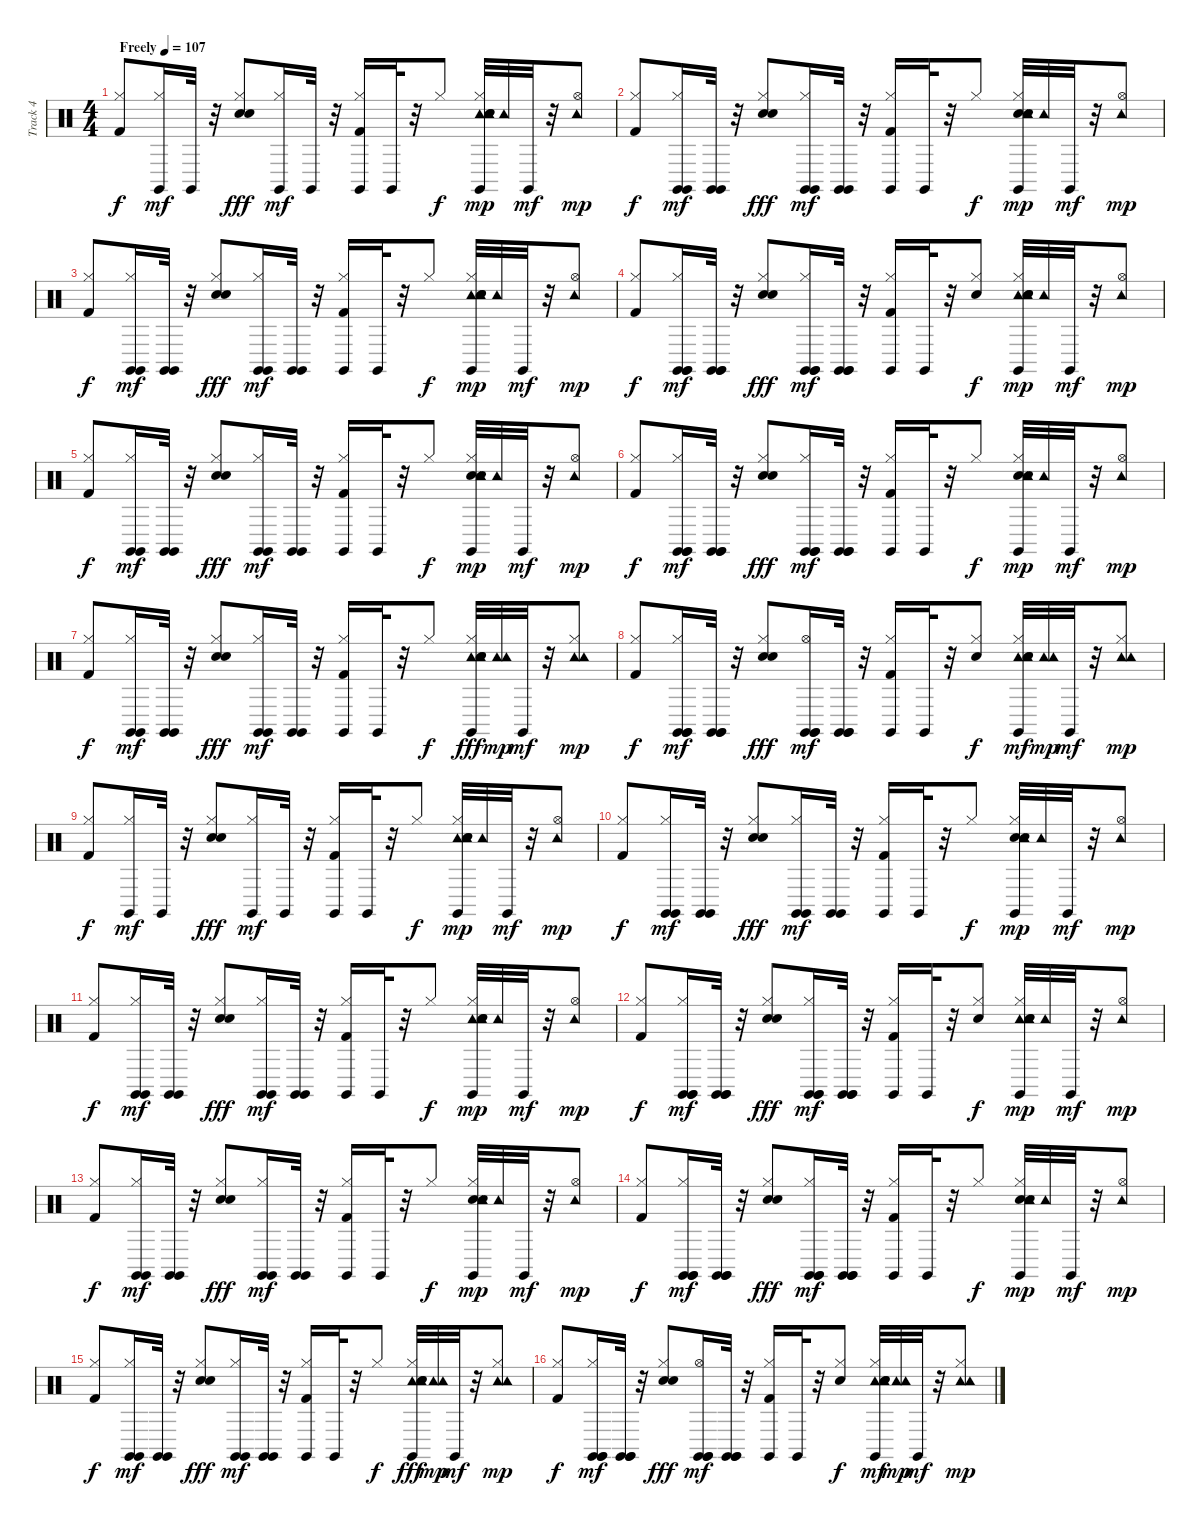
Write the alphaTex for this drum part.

\track ("Track 4" "Track 4") {instrument percussion}
\staff {score}
\articulation defaults
\ts (4 4)
\tempo (107 "Freely")
\clef neutral
\ks c
("Hi-Hat (closed)" "Kick (hit) 2").8{dy f} ("Claves (hit)" "Hi-Hat (closed)").16{dy mf} "Claves (hit)".32 r.32 ("Hand Clap (hit)" "Snare (hit) 2" "Hi-Hat (closed)").8{dy fff} ("Hi-Hat (closed)" "Claves (hit)").16{dy mf} "Claves (hit)".32 r.32 ("Kick (hit) 2" "Claves (hit)" "Hi-Hat (closed)").16 "Claves (hit)".32 r.32 "Hi-Hat (closed)".8{dy f} ("Tambourine (hit)" "Claves (hit)" "Hi-Hat (closed)" "Hand Clap (hit)" "Snare (hit) 2" "Tambourine (hit)").32{dy mp} "Tambourine (hit)".32 "Claves (hit)".32{dy mf} r.32 ("Hi-Hat (open)" "Tambourine (hit)").8{dy mp} |
("Hi-Hat (closed)" "Kick (hit) 2").8{dy f} ("Claves (hit)" "Hi-Hat (closed)" "Claves (hit)").16{dy mf} ("Claves (hit)" "Claves (hit)").32 r.32 ("Hand Clap (hit)" "Hi-Hat (closed)" "Snare (hit) 2").8{dy fff} ("Claves (hit)" "Claves (hit)" "Hi-Hat (closed)").16{dy mf} ("Claves (hit)" "Claves (hit)").32 r.32 ("Hi-Hat (closed)" "Kick (hit) 2" "Claves (hit)").16 "Claves (hit)".32 r.32 "Hi-Hat (closed)".8{dy f} ("Hi-Hat (closed)" "Hand Clap (hit)" "Tambourine (hit)" "Snare (hit) 2" "Claves (hit)" "Tambourine (hit)").32{dy mp} "Tambourine (hit)".32 "Claves (hit)".32{dy mf} r.32 ("Tambourine (hit)" "Hi-Hat (open)").8{dy mp} |
("Kick (hit) 2" "Hi-Hat (closed)").8{dy f} ("Claves (hit)" "Hi-Hat (closed)" "Claves (hit)").16{dy mf} ("Claves (hit)" "Claves (hit)").32 r.32 ("Hand Clap (hit)" "Hi-Hat (closed)" "Snare (hit) 2").8{dy fff} ("Hi-Hat (closed)" "Claves (hit)" "Claves (hit)").16{dy mf} ("Claves (hit)" "Claves (hit)").32 r.32 ("Hi-Hat (closed)" "Kick (hit) 2" "Claves (hit)").16 "Claves (hit)".32 r.32 "Hi-Hat (closed)".8{dy f} ("Tambourine (hit)" "Snare (hit) 2" "Hand Clap (hit)" "Claves (hit)" "Hi-Hat (closed)" "Tambourine (hit)").32{dy mp} "Tambourine (hit)".32 "Claves (hit)".32{dy mf} r.32 ("Tambourine (hit)" "Hi-Hat (open)").8{dy mp} |
("Hi-Hat (closed)" "Kick (hit) 2").8{dy f} ("Claves (hit)" "Claves (hit)" "Hi-Hat (closed)" "Claves (hit)").16{dy mf} ("Claves (hit)" "Claves (hit)" "Claves (hit)").32 r.32 ("Hi-Hat (closed)" "Snare (hit) 2" "Hand Clap (hit)").8{dy fff} ("Claves (hit)" "Hi-Hat (closed)" "Claves (hit)" "Claves (hit)").16{dy mf} ("Claves (hit)" "Claves (hit)" "Claves (hit)").32 r.32 ("Claves (hit)" "Kick (hit) 2" "Hi-Hat (closed)").16 "Claves (hit)".32 r.32 ("Hand Clap (hit)" "Hi-Hat (closed)").8{dy f} ("Tambourine (hit)" "Hi-Hat (closed)" "Claves (hit)" "Hand Clap (hit)" "Snare (hit) 2" "Tambourine (hit)").32{dy mp} "Tambourine (hit)".32 "Claves (hit)".32{dy mf} r.32 ("Hi-Hat (open)" "Tambourine (hit)").8{dy mp} |
("Kick (hit) 2" "Hi-Hat (closed)").8{dy f} ("Claves (hit)" "Claves (hit)" "Hi-Hat (closed)").16{dy mf} ("Claves (hit)" "Claves (hit)").32 r.32 ("Hand Clap (hit)" "Snare (hit) 2" "Hi-Hat (closed)").8{dy fff} ("Claves (hit)" "Hi-Hat (closed)" "Claves (hit)").16{dy mf} ("Claves (hit)" "Claves (hit)").32 r.32 ("Claves (hit)" "Hi-Hat (closed)" "Kick (hit) 2").16 "Claves (hit)".32 r.32 "Hi-Hat (closed)".8{dy f} ("Snare (hit) 2" "Hi-Hat (closed)" "Claves (hit)" "Hand Clap (hit)" "Tambourine (hit)" "Tambourine (hit)").32{dy mp} "Tambourine (hit)".32 "Claves (hit)".32{dy mf} r.32 ("Tambourine (hit)" "Hi-Hat (open)").8{dy mp} |
("Hi-Hat (closed)" "Kick (hit) 2").8{dy f} ("Hi-Hat (closed)" "Claves (hit)" "Claves (hit)" "Claves (hit)").16{dy mf} ("Claves (hit)" "Claves (hit)" "Claves (hit)").32 r.32 ("Snare (hit) 2" "Hand Clap (hit)" "Hi-Hat (closed)").8{dy fff} ("Hi-Hat (closed)" "Claves (hit)" "Claves (hit)" "Claves (hit)").16{dy mf} ("Claves (hit)" "Claves (hit)" "Claves (hit)").32 r.32 ("Hi-Hat (closed)" "Kick (hit) 2" "Claves (hit)").16 "Claves (hit)".32 r.32 "Hi-Hat (closed)".8{dy f} ("Snare (hit) 2" "Hi-Hat (closed)" "Tambourine (hit)" "Claves (hit)" "Hand Clap (hit)" "Tambourine (hit)").32{dy mp} "Tambourine (hit)".32 "Claves (hit)".32{dy mf} r.32 ("Tambourine (hit)" "Hi-Hat (open)").8{dy mp} |
("Kick (hit) 2" "Hi-Hat (closed)").8{dy f} ("Claves (hit)" "Claves (hit)" "Hi-Hat (closed)").16{dy mf} ("Claves (hit)" "Claves (hit)").32 r.32 ("Snare (hit) 2" "Hi-Hat (closed)" "Hand Clap (hit)").8{dy fff} ("Claves (hit)" "Claves (hit)" "Hi-Hat (closed)").16{dy mf} ("Claves (hit)" "Claves (hit)").32 r.32 ("Claves (hit)" "Hi-Hat (closed)" "Kick (hit) 2").16 "Claves (hit)".32 r.32 "Hi-Hat (closed)".8{dy f} ("Hi-Hat (closed)" "Tambourine (hit)" "Tambourine (hit)" "Claves (hit)" "Snare (hit) 2" "Hand Clap (hit)").32{dy fff} ("Tambourine (hit)" "Tambourine (hit)").32{dy mp} "Claves (hit)".32{dy mf} r.32 ("Hi-Hat (closed)" "Tambourine (hit)" "Tambourine (hit)").8{dy mp} |
("Hi-Hat (closed)" "Kick (hit) 2").8{dy f} ("Claves (hit)" "Claves (hit)" "Hi-Hat (closed)" "Claves (hit)").16{dy mf} ("Claves (hit)" "Claves (hit)" "Claves (hit)").32 r.32 ("Hand Clap (hit)" "Snare (hit) 2" "Hi-Hat (closed)").8{dy fff} ("Claves (hit)" "Claves (hit)" "Claves (hit)" "Hi-Hat (open)").16{dy mf} ("Claves (hit)" "Claves (hit)" "Claves (hit)").32 r.32 ("Kick (hit) 2" "Hi-Hat (closed)" "Claves (hit)").16 "Claves (hit)".32 r.32 ("Hi-Hat (closed)" "Hand Clap (hit)").8{dy f} ("Tambourine (hit)" "Hand Clap (hit)" "Tambourine (hit)" "Claves (hit)" "Snare (hit) 2" "Hi-Hat (closed)").32{dy mf} ("Tambourine (hit)" "Tambourine (hit)").32{dy mp} "Claves (hit)".32{dy mf} r.32 ("Hi-Hat (closed)" "Tambourine (hit)" "Tambourine (hit)").8{dy mp} |
("Hi-Hat (closed)" "Kick (hit) 2").8{dy f} ("Claves (hit)" "Hi-Hat (closed)").16{dy mf} "Claves (hit)".32 r.32 ("Hand Clap (hit)" "Snare (hit) 2" "Hi-Hat (closed)").8{dy fff} ("Hi-Hat (closed)" "Claves (hit)").16{dy mf} "Claves (hit)".32 r.32 ("Kick (hit) 2" "Claves (hit)" "Hi-Hat (closed)").16 "Claves (hit)".32 r.32 "Hi-Hat (closed)".8{dy f} ("Tambourine (hit)" "Claves (hit)" "Hi-Hat (closed)" "Hand Clap (hit)" "Snare (hit) 2" "Tambourine (hit)").32{dy mp} "Tambourine (hit)".32 "Claves (hit)".32{dy mf} r.32 ("Hi-Hat (open)" "Tambourine (hit)").8{dy mp} |
("Hi-Hat (closed)" "Kick (hit) 2").8{dy f} ("Claves (hit)" "Hi-Hat (closed)" "Claves (hit)").16{dy mf} ("Claves (hit)" "Claves (hit)").32 r.32 ("Hand Clap (hit)" "Hi-Hat (closed)" "Snare (hit) 2").8{dy fff} ("Claves (hit)" "Claves (hit)" "Hi-Hat (closed)").16{dy mf} ("Claves (hit)" "Claves (hit)").32 r.32 ("Hi-Hat (closed)" "Kick (hit) 2" "Claves (hit)").16 "Claves (hit)".32 r.32 "Hi-Hat (closed)".8{dy f} ("Hi-Hat (closed)" "Hand Clap (hit)" "Tambourine (hit)" "Snare (hit) 2" "Claves (hit)" "Tambourine (hit)").32{dy mp} "Tambourine (hit)".32 "Claves (hit)".32{dy mf} r.32 ("Tambourine (hit)" "Hi-Hat (open)").8{dy mp} |
("Kick (hit) 2" "Hi-Hat (closed)").8{dy f} ("Claves (hit)" "Hi-Hat (closed)" "Claves (hit)").16{dy mf} ("Claves (hit)" "Claves (hit)").32 r.32 ("Hand Clap (hit)" "Hi-Hat (closed)" "Snare (hit) 2").8{dy fff} ("Hi-Hat (closed)" "Claves (hit)" "Claves (hit)").16{dy mf} ("Claves (hit)" "Claves (hit)").32 r.32 ("Hi-Hat (closed)" "Kick (hit) 2" "Claves (hit)").16 "Claves (hit)".32 r.32 "Hi-Hat (closed)".8{dy f} ("Tambourine (hit)" "Snare (hit) 2" "Hand Clap (hit)" "Claves (hit)" "Hi-Hat (closed)" "Tambourine (hit)").32{dy mp} "Tambourine (hit)".32 "Claves (hit)".32{dy mf} r.32 ("Tambourine (hit)" "Hi-Hat (open)").8{dy mp} |
("Hi-Hat (closed)" "Kick (hit) 2").8{dy f} ("Claves (hit)" "Claves (hit)" "Hi-Hat (closed)" "Claves (hit)").16{dy mf} ("Claves (hit)" "Claves (hit)" "Claves (hit)").32 r.32 ("Hi-Hat (closed)" "Snare (hit) 2" "Hand Clap (hit)").8{dy fff} ("Claves (hit)" "Hi-Hat (closed)" "Claves (hit)" "Claves (hit)").16{dy mf} ("Claves (hit)" "Claves (hit)" "Claves (hit)").32 r.32 ("Claves (hit)" "Kick (hit) 2" "Hi-Hat (closed)").16 "Claves (hit)".32 r.32 ("Hand Clap (hit)" "Hi-Hat (closed)").8{dy f} ("Tambourine (hit)" "Hi-Hat (closed)" "Claves (hit)" "Hand Clap (hit)" "Snare (hit) 2" "Tambourine (hit)").32{dy mp} "Tambourine (hit)".32 "Claves (hit)".32{dy mf} r.32 ("Hi-Hat (open)" "Tambourine (hit)").8{dy mp} |
("Kick (hit) 2" "Hi-Hat (closed)").8{dy f} ("Claves (hit)" "Claves (hit)" "Hi-Hat (closed)").16{dy mf} ("Claves (hit)" "Claves (hit)").32 r.32 ("Hand Clap (hit)" "Snare (hit) 2" "Hi-Hat (closed)").8{dy fff} ("Claves (hit)" "Hi-Hat (closed)" "Claves (hit)").16{dy mf} ("Claves (hit)" "Claves (hit)").32 r.32 ("Claves (hit)" "Hi-Hat (closed)" "Kick (hit) 2").16 "Claves (hit)".32 r.32 "Hi-Hat (closed)".8{dy f} ("Snare (hit) 2" "Hi-Hat (closed)" "Claves (hit)" "Hand Clap (hit)" "Tambourine (hit)" "Tambourine (hit)").32{dy mp} "Tambourine (hit)".32 "Claves (hit)".32{dy mf} r.32 ("Tambourine (hit)" "Hi-Hat (open)").8{dy mp} |
("Hi-Hat (closed)" "Kick (hit) 2").8{dy f} ("Hi-Hat (closed)" "Claves (hit)" "Claves (hit)" "Claves (hit)").16{dy mf} ("Claves (hit)" "Claves (hit)" "Claves (hit)").32 r.32 ("Snare (hit) 2" "Hand Clap (hit)" "Hi-Hat (closed)").8{dy fff} ("Hi-Hat (closed)" "Claves (hit)" "Claves (hit)" "Claves (hit)").16{dy mf} ("Claves (hit)" "Claves (hit)" "Claves (hit)").32 r.32 ("Hi-Hat (closed)" "Kick (hit) 2" "Claves (hit)").16 "Claves (hit)".32 r.32 "Hi-Hat (closed)".8{dy f} ("Snare (hit) 2" "Hi-Hat (closed)" "Tambourine (hit)" "Claves (hit)" "Hand Clap (hit)" "Tambourine (hit)").32{dy mp} "Tambourine (hit)".32 "Claves (hit)".32{dy mf} r.32 ("Tambourine (hit)" "Hi-Hat (open)").8{dy mp} |
("Kick (hit) 2" "Hi-Hat (closed)").8{dy f} ("Claves (hit)" "Claves (hit)" "Hi-Hat (closed)").16{dy mf} ("Claves (hit)" "Claves (hit)").32 r.32 ("Snare (hit) 2" "Hi-Hat (closed)" "Hand Clap (hit)").8{dy fff} ("Claves (hit)" "Claves (hit)" "Hi-Hat (closed)").16{dy mf} ("Claves (hit)" "Claves (hit)").32 r.32 ("Claves (hit)" "Hi-Hat (closed)" "Kick (hit) 2").16 "Claves (hit)".32 r.32 "Hi-Hat (closed)".8{dy f} ("Hi-Hat (closed)" "Tambourine (hit)" "Tambourine (hit)" "Claves (hit)" "Snare (hit) 2" "Hand Clap (hit)").32{dy fff} ("Tambourine (hit)" "Tambourine (hit)").32{dy mp} "Claves (hit)".32{dy mf} r.32 ("Hi-Hat (closed)" "Tambourine (hit)" "Tambourine (hit)").8{dy mp} |
("Hi-Hat (closed)" "Kick (hit) 2").8{dy f} ("Claves (hit)" "Claves (hit)" "Hi-Hat (closed)" "Claves (hit)").16{dy mf} ("Claves (hit)" "Claves (hit)" "Claves (hit)").32 r.32 ("Hand Clap (hit)" "Snare (hit) 2" "Hi-Hat (closed)").8{dy fff} ("Claves (hit)" "Claves (hit)" "Claves (hit)" "Hi-Hat (open)").16{dy mf} ("Claves (hit)" "Claves (hit)" "Claves (hit)").32 r.32 ("Kick (hit) 2" "Hi-Hat (closed)" "Claves (hit)").16 "Claves (hit)".32 r.32 ("Hi-Hat (closed)" "Hand Clap (hit)").8{dy f} ("Tambourine (hit)" "Hand Clap (hit)" "Tambourine (hit)" "Claves (hit)" "Snare (hit) 2" "Hi-Hat (closed)").32{dy mf} ("Tambourine (hit)" "Tambourine (hit)").32{dy mp} "Claves (hit)".32{dy mf} r.32 ("Hi-Hat (closed)" "Tambourine (hit)" "Tambourine (hit)").8{dy mp}
